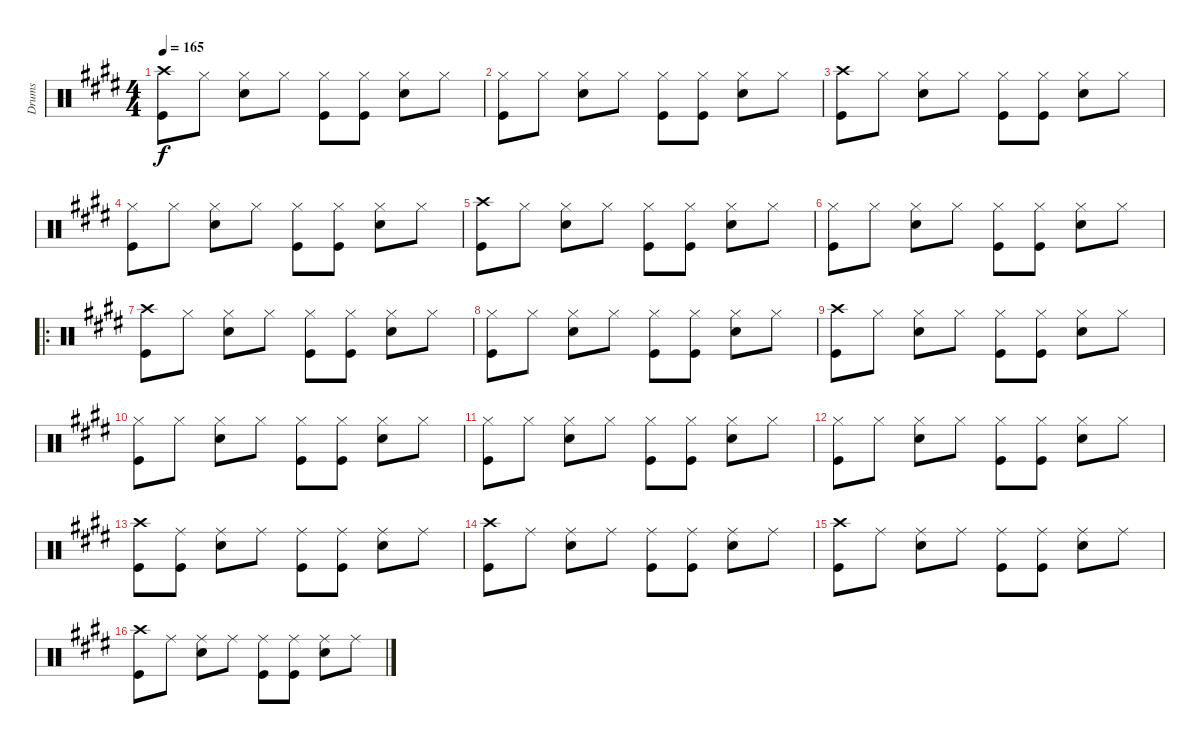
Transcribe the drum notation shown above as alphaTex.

\track ("Drums" "Drums") {instrument percussion}
\staff {score}
\articulation defaults
\ts (4 4)
\tempo 165
\clef neutral
\ks e
("Crash high (hit)" "Kick (hit)").8{dy f} "Hi-Hat (closed)".8 ("Hi-Hat (closed)" "Snare (hit) 2").8 "Hi-Hat (closed)".8 ("Hi-Hat (closed)" "Kick (hit)").8 ("Hi-Hat (closed)" "Kick (hit)").8 ("Hi-Hat (closed)" "Snare (hit) 2").8 "Hi-Hat (closed)".8 |
("Hi-Hat (closed)" "Kick (hit)").8 "Hi-Hat (closed)".8 ("Hi-Hat (closed)" "Snare (hit) 2").8 "Hi-Hat (closed)".8 ("Hi-Hat (closed)" "Kick (hit)").8 ("Hi-Hat (closed)" "Kick (hit)").8 ("Hi-Hat (closed)" "Snare (hit) 2").8 "Hi-Hat (closed)".8 |
("Crash high (hit)" "Kick (hit)").8 "Hi-Hat (closed)".8 ("Hi-Hat (closed)" "Snare (hit) 2").8 "Hi-Hat (closed)".8 ("Hi-Hat (closed)" "Kick (hit)").8 ("Hi-Hat (closed)" "Kick (hit)").8 ("Hi-Hat (closed)" "Snare (hit) 2").8 "Hi-Hat (closed)".8 |
("Hi-Hat (closed)" "Kick (hit)").8 "Hi-Hat (closed)".8 ("Hi-Hat (closed)" "Snare (hit) 2").8 "Hi-Hat (closed)".8 ("Hi-Hat (closed)" "Kick (hit)").8 ("Hi-Hat (closed)" "Kick (hit)").8 ("Hi-Hat (closed)" "Snare (hit) 2").8 "Hi-Hat (closed)".8 |
("Crash high (hit)" "Kick (hit)").8 "Hi-Hat (closed)".8 ("Hi-Hat (closed)" "Snare (hit) 2").8 "Hi-Hat (closed)".8 ("Hi-Hat (closed)" "Kick (hit)").8 ("Hi-Hat (closed)" "Kick (hit)").8 ("Hi-Hat (closed)" "Snare (hit) 2").8 "Hi-Hat (closed)".8 |
("Hi-Hat (closed)" "Kick (hit)").8 "Hi-Hat (closed)".8 ("Hi-Hat (closed)" "Snare (hit) 2").8 "Hi-Hat (closed)".8 ("Hi-Hat (closed)" "Kick (hit)").8 ("Hi-Hat (closed)" "Kick (hit)").8 ("Hi-Hat (closed)" "Snare (hit) 2").8 "Hi-Hat (closed)".8 |
\ro
("Crash high (hit)" "Kick (hit)").8 "Hi-Hat (closed)".8 ("Hi-Hat (closed)" "Snare (hit) 2").8 "Hi-Hat (closed)".8 ("Hi-Hat (closed)" "Kick (hit)").8 ("Hi-Hat (closed)" "Kick (hit)").8 ("Hi-Hat (closed)" "Snare (hit) 2").8 "Hi-Hat (closed)".8 |
("Hi-Hat (closed)" "Kick (hit)").8 "Hi-Hat (closed)".8 ("Hi-Hat (closed)" "Snare (hit) 2").8 "Hi-Hat (closed)".8 ("Hi-Hat (closed)" "Kick (hit)").8 ("Hi-Hat (closed)" "Kick (hit)").8 ("Hi-Hat (closed)" "Snare (hit) 2").8 "Hi-Hat (closed)".8 |
("Crash high (hit)" "Kick (hit)").8 "Hi-Hat (closed)".8 ("Hi-Hat (closed)" "Snare (hit) 2").8 "Hi-Hat (closed)".8 ("Hi-Hat (closed)" "Kick (hit)").8 ("Hi-Hat (closed)" "Kick (hit)").8 ("Hi-Hat (closed)" "Snare (hit) 2").8 "Hi-Hat (closed)".8 |
("Hi-Hat (closed)" "Kick (hit)").8 "Hi-Hat (closed)".8 ("Hi-Hat (closed)" "Snare (hit) 2").8 "Hi-Hat (closed)".8 ("Hi-Hat (closed)" "Kick (hit)").8 ("Hi-Hat (closed)" "Kick (hit)").8 ("Hi-Hat (closed)" "Snare (hit) 2").8 "Hi-Hat (closed)".8 |
("Hi-Hat (closed)" "Kick (hit)").8 "Hi-Hat (closed)".8 ("Hi-Hat (closed)" "Snare (hit) 2").8 "Hi-Hat (closed)".8 ("Hi-Hat (closed)" "Kick (hit)").8 ("Hi-Hat (closed)" "Kick (hit)").8 ("Hi-Hat (closed)" "Snare (hit) 2").8 "Hi-Hat (closed)".8 |
("Hi-Hat (closed)" "Kick (hit)").8 "Hi-Hat (closed)".8 ("Hi-Hat (closed)" "Snare (hit) 2").8 "Hi-Hat (closed)".8 ("Hi-Hat (closed)" "Kick (hit)").8 ("Hi-Hat (closed)" "Kick (hit)").8 ("Hi-Hat (closed)" "Snare (hit) 2").8 "Hi-Hat (closed)".8 |
("Crash high (hit)" "Kick (hit)").8 ("Ride (middle)" "Kick (hit)").8 ("Ride (middle)" "Snare (hit) 2").8 "Ride (middle)".8 ("Ride (middle)" "Kick (hit)").8 ("Ride (middle)" "Kick (hit)").8 ("Ride (middle)" "Snare (hit) 2").8 "Ride (middle)".8 |
("Crash high (hit)" "Kick (hit)").8 "Ride (middle)".8 ("Ride (middle)" "Snare (hit) 2").8 "Ride (middle)".8 ("Ride (middle)" "Kick (hit)").8 ("Ride (middle)" "Kick (hit)").8 ("Ride (middle)" "Snare (hit) 2").8 "Ride (middle)".8 |
("Crash high (hit)" "Kick (hit)").8 "Ride (middle)".8 ("Ride (middle)" "Snare (hit) 2").8 "Ride (middle)".8 ("Ride (middle)" "Kick (hit)").8 ("Ride (middle)" "Kick (hit)").8 ("Ride (middle)" "Snare (hit) 2").8 "Ride (middle)".8 |
("Crash high (hit)" "Kick (hit)").8 "Ride (middle)".8 ("Ride (middle)" "Snare (hit) 2").8 "Ride (middle)".8 ("Ride (middle)" "Kick (hit)").8 ("Ride (middle)" "Kick (hit)").8 ("Ride (middle)" "Snare (hit) 2").8 "Ride (middle)".8
